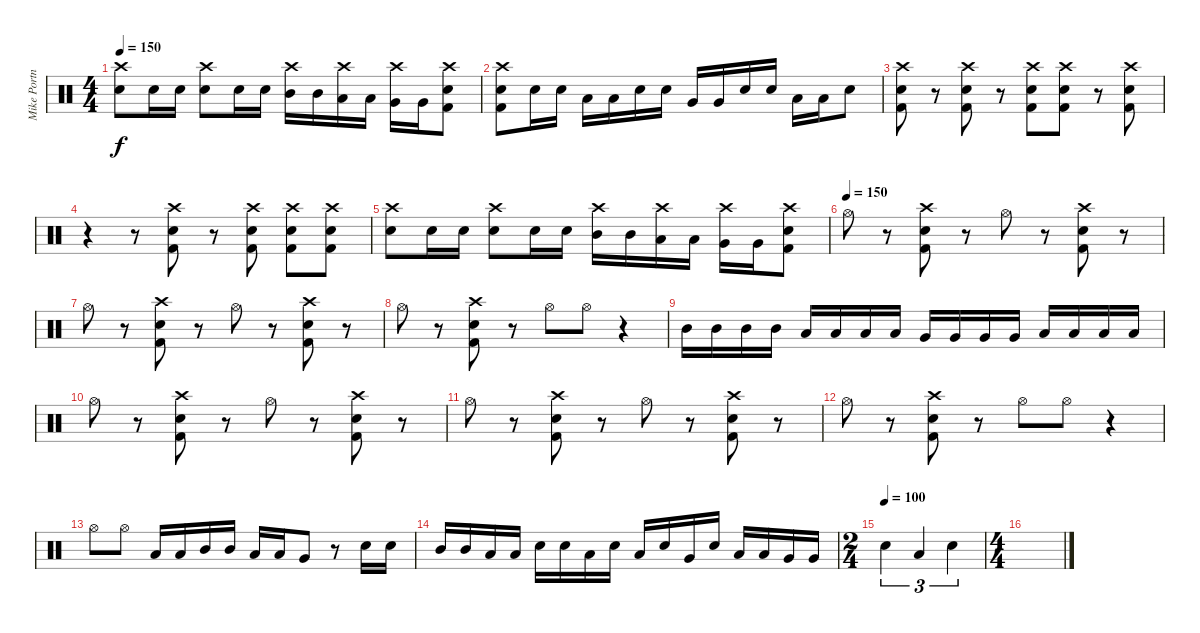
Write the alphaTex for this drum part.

\track ("Mike Portnoy" "Mike Portn") {instrument percussion}
\staff {score}
\articulation defaults
\ts (4 4)
\tempo 150
\clef neutral
\ks c
("Crash high (hit)" "Electric Snare (hit)").8{dy f} "Electric Snare (hit)".16 "Electric Snare (hit)".16 ("Crash high (hit)" "Electric Snare (hit)").8 "Electric Snare (hit)".16 "Electric Snare (hit)".16 ("Crash high (hit)" "Mid Tom (hit)").16 "Mid Tom (hit)".16 ("Crash high (hit)" "Low Tom (hit)").16 "Low Tom (hit)".16 ("Crash high (hit)" "Very Low Tom (hit)").16 "Very Low Tom (hit)".16 ("Crash high (hit)" "Electric Snare (hit)" "Kick (hit) 2").8 |
("Crash high (hit)" "Electric Snare (hit)" "Kick (hit) 2").8 "Electric Snare (hit)".16 "Electric Snare (hit)".16 "Low Tom (hit)".16 "Low Tom (hit)".16 "Electric Snare (hit)".16 "Electric Snare (hit)".16 "Very Low Tom (hit)".16 "Very Low Tom (hit)".16 "Electric Snare (hit)".16 "Electric Snare (hit)".16 "Low Floor Tom (hit)".16 "Low Floor Tom (hit)".16 "Electric Snare (hit)".8 |
("Crash high (hit)" "Electric Snare (hit)" "Kick (hit) 2").8 r.8 ("Crash high (hit)" "Electric Snare (hit)" "Kick (hit) 2").8 r.8 ("Crash high (hit)" "Electric Snare (hit)" "Kick (hit) 2").8 ("Crash high (hit)" "Electric Snare (hit)" "Kick (hit) 2").8 r.8 ("Crash high (hit)" "Electric Snare (hit)" "Kick (hit) 2").8 |
r.4 r.8 ("Crash high (hit)" "Electric Snare (hit)" "Kick (hit) 2").8 r.8 ("Crash high (hit)" "Electric Snare (hit)" "Kick (hit) 2").8 ("Crash high (hit)" "Electric Snare (hit)" "Kick (hit) 2").8 ("Crash high (hit)" "Electric Snare (hit)" "Kick (hit) 2").8 |
("Crash high (hit)" "Electric Snare (hit)").8 "Electric Snare (hit)".16 "Electric Snare (hit)".16 ("Crash high (hit)" "Electric Snare (hit)").8 "Electric Snare (hit)".16 "Electric Snare (hit)".16 ("Crash high (hit)" "Mid Tom (hit)").16 "Mid Tom (hit)".16 ("Crash high (hit)" "Low Tom (hit)").16 "Low Tom (hit)".16 ("Crash high (hit)" "Very Low Tom (hit)").16 "Very Low Tom (hit)".16 ("Crash high (hit)" "Electric Snare (hit)" "Kick (hit) 2").8 |
\tempo (150)
"Hi-Hat (open)".8 r.8 ("Crash high (hit)" "Electric Snare (hit)" "Kick (hit) 2").8 r.8 "Hi-Hat (open)".8 r.8 ("Crash high (hit)" "Electric Snare (hit)" "Kick (hit) 2").8 r.8 |
"Hi-Hat (open)".8 r.8 ("Crash high (hit)" "Electric Snare (hit)" "Kick (hit) 2").8 r.8 "Hi-Hat (open)".8 r.8 ("Crash high (hit)" "Electric Snare (hit)" "Kick (hit) 2").8 r.8 |
"Hi-Hat (open)".8 r.8 ("Crash high (hit)" "Electric Snare (hit)" "Kick (hit) 2").8 r.8 "Hi-Hat (open)".8 "Hi-Hat (open)".8 r.4 |
"Mid Tom (hit)".16 "Mid Tom (hit)".16 "Mid Tom (hit)".16 "Mid Tom (hit)".16 "Low Tom (hit)".16 "Low Tom (hit)".16 "Low Tom (hit)".16 "Low Tom (hit)".16 "Very Low Tom (hit)".16 "Very Low Tom (hit)".16 "Very Low Tom (hit)".16 "Very Low Tom (hit)".16 "Low Floor Tom (hit)".16 "Low Floor Tom (hit)".16 "Low Floor Tom (hit)".16 "Low Floor Tom (hit)".16 |
"Hi-Hat (open)".8 r.8 ("Crash high (hit)" "Electric Snare (hit)" "Kick (hit) 2").8 r.8 "Hi-Hat (open)".8 r.8 ("Crash high (hit)" "Electric Snare (hit)" "Kick (hit) 2").8 r.8 |
"Hi-Hat (open)".8 r.8 ("Crash high (hit)" "Electric Snare (hit)" "Kick (hit) 2").8 r.8 "Hi-Hat (open)".8 r.8 ("Crash high (hit)" "Electric Snare (hit)" "Kick (hit) 2").8 r.8 |
"Hi-Hat (open)".8 r.8 ("Crash high (hit)" "Electric Snare (hit)" "Kick (hit) 2").8 r.8 "Hi-Hat (open)".8 "Hi-Hat (open)".8 r.4 |
"Hi-Hat (open)".8 "Hi-Hat (open)".8 "Low Floor Tom (hit)".16 "Low Floor Tom (hit)".16 "Mid Tom (hit)".16 "Mid Tom (hit)".16 "Low Tom (hit)".16 "Low Tom (hit)".16 "Very Low Tom (hit)".8 r.8 "Electric Snare (hit)".16 "Electric Snare (hit)".16 |
"Mid Tom (hit)".16 "Mid Tom (hit)".16 "Low Tom (hit)".16 "Low Tom (hit)".16 "Electric Snare (hit)".16 "Electric Snare (hit)".16 "Low Floor Tom (hit)".16 "Electric Snare (hit)".16 "Low Tom (hit)".16 "Electric Snare (hit)".16 "Very Low Tom (hit)".16 "Electric Snare (hit)".16 "Low Tom (hit)".16 "Low Tom (hit)".16 "Very Low Tom (hit)".16 "Very Low Tom (hit)".16 |
\ts (2 4)
\tempo (100)
"Electric Snare (hit)".4{tu (3 2)} "Low Tom (hit)".4{tu (3 2)} "Electric Snare (hit)".4{tu (3 2)} |
\ts (4 4)
